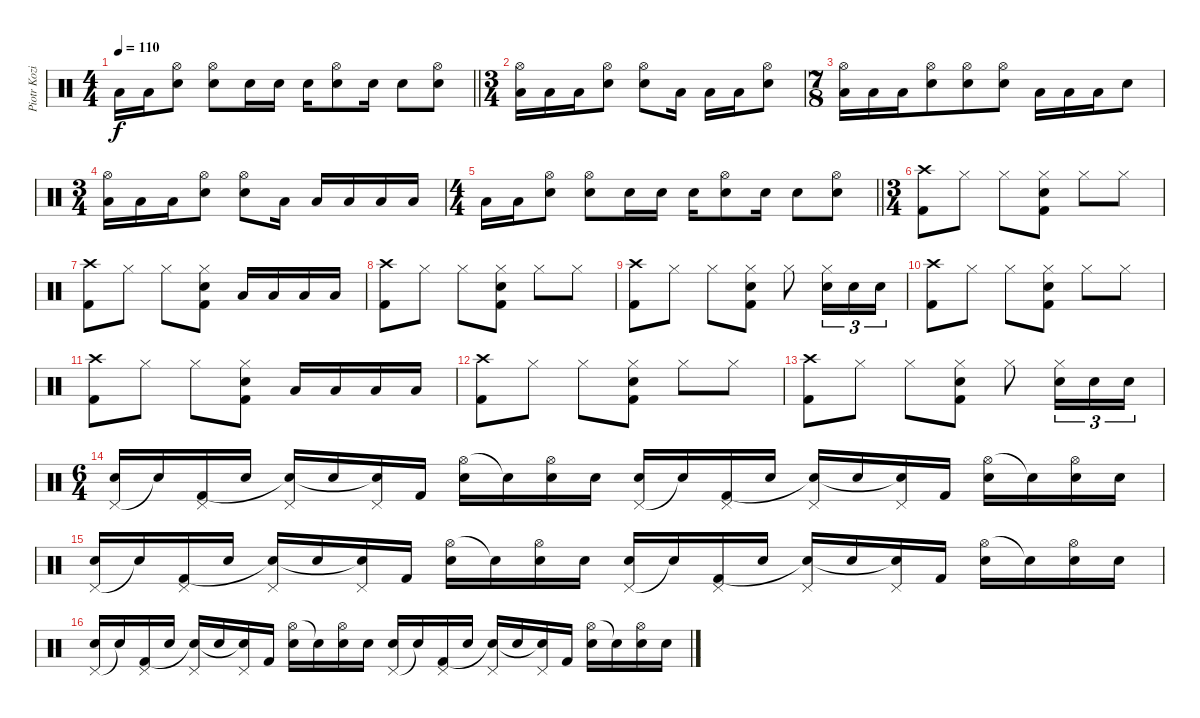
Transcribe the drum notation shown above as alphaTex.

\track ("Piotr Kozieradzki" "Piotr Kozi") {instrument percussion}
\staff {score}
\articulation defaults
\ts (4 4)
\tempo 110
\clef neutral
\barLineRight lightlight
\ks c "Low Tom (hit)".16{dy f} "Low Tom (hit)".16
("Hi-Hat (open)" "Electric Snare (hit)").8 ("Hi-Hat (open)" "Electric Snare (hit)").8 "Electric Snare (hit)".16 "Electric Snare (hit)".16 "Electric Snare (hit)".16 ("Hi-Hat (open)" "Electric Snare (hit)").8 "Electric Snare (hit)".16 "Electric Snare (hit)".8 ("Hi-Hat (open)" "Electric Snare (hit)").8 |
\ts (3 4)
("Hi-Hat (open)" "Low Tom (hit)").16 "Low Tom (hit)".16 "Low Tom (hit)".16 ("Hi-Hat (open)" "Electric Snare (hit)").8 ("Hi-Hat (open)" "Electric Snare (hit)").8 "Low Tom (hit)".16 "Low Tom (hit)".16 "Low Tom (hit)".16 ("Hi-Hat (open)" "Electric Snare (hit)").8 |
\ts (7 8)
("Hi-Hat (open)" "Low Tom (hit)").16 "Low Tom (hit)".16 "Low Tom (hit)".16 ("Hi-Hat (open)" "Electric Snare (hit)").8 ("Hi-Hat (open)" "Electric Snare (hit)").8 ("Hi-Hat (open)" "Electric Snare (hit)").8 "Low Tom (hit)".16 "Low Tom (hit)".16 "Low Tom (hit)".16 "Electric Snare (hit)".8 |
\ts (3 4)
("Hi-Hat (open)" "Low Tom (hit)").16 "Low Tom (hit)".16 "Low Tom (hit)".16 ("Hi-Hat (open)" "Electric Snare (hit)").8 ("Hi-Hat (open)" "Electric Snare (hit)").8 "Low Tom (hit)".16 "Low Tom (hit)".16 "Low Tom (hit)".16 "Low Tom (hit)".16 "Low Tom (hit)".16 |
\ts (4 4)
\barLineRight lightlight "Low Tom (hit)".16 "Low Tom (hit)".16
("Hi-Hat (open)" "Electric Snare (hit)").8 ("Hi-Hat (open)" "Electric Snare (hit)").8 "Electric Snare (hit)".16 "Electric Snare (hit)".16 "Electric Snare (hit)".16 ("Hi-Hat (open)" "Electric Snare (hit)").8 "Electric Snare (hit)".16 "Electric Snare (hit)".8 ("Hi-Hat (open)" "Electric Snare (hit)").8 |
\ts (3 4)
("Crash high (hit)" "Kick (hit) 2").8 "Hi-Hat (closed)".8 "Hi-Hat (closed)".8 ("Hi-Hat (closed)" "Electric Snare (hit)" "Kick (hit) 2").8 "Hi-Hat (closed)".8 "Hi-Hat (closed)".8 |
("Crash high (hit)" "Kick (hit) 2").8 "Hi-Hat (closed)".8 "Hi-Hat (closed)".8 ("Hi-Hat (closed)" "Electric Snare (hit)" "Kick (hit) 2").8 "Low Tom (hit)".16 "Low Tom (hit)".16 "Low Tom (hit)".16 "Low Tom (hit)".16 |
("Crash high (hit)" "Kick (hit) 2").8 "Hi-Hat (closed)".8 "Hi-Hat (closed)".8 ("Hi-Hat (closed)" "Electric Snare (hit)" "Kick (hit) 2").8 "Hi-Hat (closed)".8 "Hi-Hat (closed)".8 |
("Crash high (hit)" "Kick (hit) 2").8 "Hi-Hat (closed)".8 "Hi-Hat (closed)".8 ("Hi-Hat (closed)" "Electric Snare (hit)" "Kick (hit) 2").8 "Hi-Hat (closed)".8 ("Hi-Hat (closed)" "Electric Snare (hit)").16{tu (3 2)} "Electric Snare (hit)".16{tu (3 2)} "Electric Snare (hit)".16{tu (3 2)} |
("Crash high (hit)" "Kick (hit) 2").8 "Hi-Hat (closed)".8 "Hi-Hat (closed)".8 ("Hi-Hat (closed)" "Electric Snare (hit)" "Kick (hit) 2").8 "Hi-Hat (closed)".8 "Hi-Hat (closed)".8 |
("Crash high (hit)" "Kick (hit) 2").8 "Hi-Hat (closed)".8 "Hi-Hat (closed)".8 ("Hi-Hat (closed)" "Electric Snare (hit)" "Kick (hit) 2").8 "Low Tom (hit)".16 "Low Tom (hit)".16 "Low Tom (hit)".16 "Low Tom (hit)".16 |
("Crash high (hit)" "Kick (hit) 2").8 "Hi-Hat (closed)".8 "Hi-Hat (closed)".8 ("Hi-Hat (closed)" "Electric Snare (hit)" "Kick (hit) 2").8 "Hi-Hat (closed)".8 "Hi-Hat (closed)".8 |
("Crash high (hit)" "Kick (hit) 2").8 "Hi-Hat (closed)".8 "Hi-Hat (closed)".8 ("Hi-Hat (closed)" "Electric Snare (hit)" "Kick (hit) 2").8 "Hi-Hat (closed)".8 ("Hi-Hat (closed)" "Electric Snare (hit)").16{tu (3 2)} "Electric Snare (hit)".16{tu (3 2)} "Electric Snare (hit)".16{tu (3 2)} |
\ts (6 4)
("Pedal Hi-Hat (hit)" "Electric Snare (hit)").16 "Snare (hit)"{t}.16 ("Pedal Hi-Hat (hit)" "Kick (hit) 2").16 "Electric Snare (hit)".16 ("Pedal Hi-Hat (hit)" "Snare (hit)"{t}).16 "Electric Snare (hit)".16 ("Pedal Hi-Hat (hit)" "Snare (hit)"{t}).16 "Kick (hit) 2".16 ("Hi-Hat (open)" "Electric Snare (hit)").16 "Snare (hit)"{t}.16 ("Hi-Hat (open)" "Electric Snare (hit)").16 "Electric Snare (hit)".16 ("Pedal Hi-Hat (hit)" "Electric Snare (hit)").16 "Snare (hit)"{t}.16 ("Pedal Hi-Hat (hit)" "Kick (hit) 2").16 "Electric Snare (hit)".16 ("Pedal Hi-Hat (hit)" "Snare (hit)"{t}).16 "Electric Snare (hit)".16 ("Pedal Hi-Hat (hit)" "Snare (hit)"{t}).16 "Kick (hit) 2".16 ("Hi-Hat (open)" "Electric Snare (hit)").16 "Snare (hit)"{t}.16 ("Hi-Hat (open)" "Electric Snare (hit)").16 "Electric Snare (hit)".16 |
("Pedal Hi-Hat (hit)" "Electric Snare (hit)").16 "Snare (hit)"{t}.16 ("Pedal Hi-Hat (hit)" "Kick (hit) 2").16 "Electric Snare (hit)".16 ("Pedal Hi-Hat (hit)" "Snare (hit)"{t}).16 "Electric Snare (hit)".16 ("Pedal Hi-Hat (hit)" "Snare (hit)"{t}).16 "Kick (hit) 2".16 ("Hi-Hat (open)" "Electric Snare (hit)").16 "Snare (hit)"{t}.16 ("Hi-Hat (open)" "Electric Snare (hit)").16 "Electric Snare (hit)".16 ("Pedal Hi-Hat (hit)" "Electric Snare (hit)").16 "Snare (hit)"{t}.16 ("Pedal Hi-Hat (hit)" "Kick (hit) 2").16 "Electric Snare (hit)".16 ("Pedal Hi-Hat (hit)" "Snare (hit)"{t}).16 "Electric Snare (hit)".16 ("Pedal Hi-Hat (hit)" "Snare (hit)"{t}).16 "Kick (hit) 2".16 ("Hi-Hat (open)" "Electric Snare (hit)").16 "Snare (hit)"{t}.16 ("Hi-Hat (open)" "Electric Snare (hit)").16 "Electric Snare (hit)".16 |
("Pedal Hi-Hat (hit)" "Electric Snare (hit)").16 "Snare (hit)"{t}.16 ("Pedal Hi-Hat (hit)" "Kick (hit) 2").16 "Electric Snare (hit)".16 ("Pedal Hi-Hat (hit)" "Snare (hit)"{t}).16 "Electric Snare (hit)".16 ("Pedal Hi-Hat (hit)" "Snare (hit)"{t}).16 "Kick (hit) 2".16 ("Hi-Hat (open)" "Electric Snare (hit)").16 "Snare (hit)"{t}.16 ("Hi-Hat (open)" "Electric Snare (hit)").16 "Electric Snare (hit)".16 ("Pedal Hi-Hat (hit)" "Electric Snare (hit)").16 "Snare (hit)"{t}.16 ("Pedal Hi-Hat (hit)" "Kick (hit) 2").16 "Electric Snare (hit)".16 ("Pedal Hi-Hat (hit)" "Snare (hit)"{t}).16 "Electric Snare (hit)".16 ("Pedal Hi-Hat (hit)" "Snare (hit)"{t}).16 "Kick (hit) 2".16 ("Hi-Hat (open)" "Electric Snare (hit)").16 "Snare (hit)"{t}.16 ("Hi-Hat (open)" "Electric Snare (hit)").16 "Electric Snare (hit)".16
